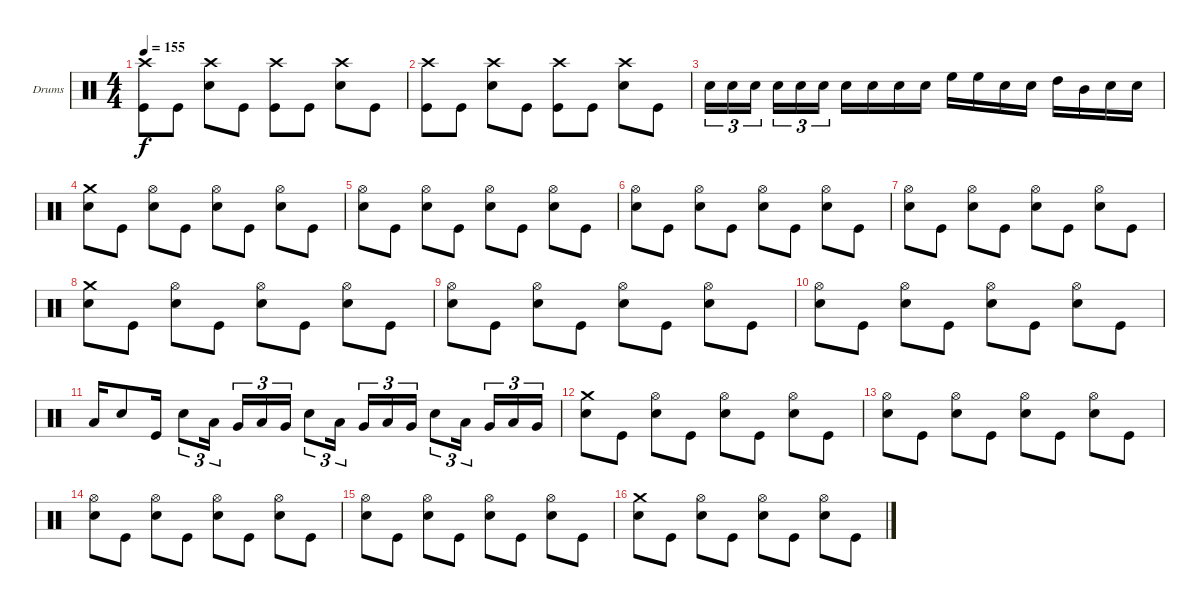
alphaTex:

\defaultSystemsLayout 4
\bracketExtendMode groupsimilarinstruments
\firstSystemTrackNameOrientation horizontal
\otherSystemsTrackNameOrientation horizontal
\track ("Drumkit" "Drums") {instrument percussion}
\staff {score}
\articulation defaults
\ts (4 4)
\tempo 155
\clef neutral
\scale
0.333333
\ks c
("Crash high (hit)" "Kick (hit)").8{dy f} "Kick (hit)".8 ("Crash high (hit)" "Snare (hit) 2").8 "Kick (hit)".8 ("Crash high (hit)" "Kick (hit)").8 "Kick (hit)".8 ("Crash high (hit)" "Snare (hit) 2").8 "Kick (hit)".8 |
\scale
0.333333 ("Crash high (hit)" "Kick (hit)").8 "Kick (hit)".8 ("Crash high (hit)" "Snare (hit) 2").8 "Kick (hit)".8 ("Crash high (hit)" "Kick (hit)").8 "Kick (hit)".8 ("Crash high (hit)" "Snare (hit) 2").8 "Kick (hit)".8 |
\scale
0.333333 "Snare (hit) 2".16{tu (3 2)} "Snare (hit) 2".16{tu (3 2)} "Snare (hit) 2".16{tu (3 2)} "Snare (hit) 2".16{tu (3 2)} "Snare (hit) 2".16{tu (3 2)} "Snare (hit) 2".16{tu (3 2)} "Snare (hit) 2".16 "Snare (hit) 2".16 "Snare (hit) 2".16 "Snare (hit) 2".16 "High Floor Tom (hit)".16 "High Floor Tom (hit)".16 "Snare (hit) 2".16 "Snare (hit) 2".16 "High Tom (hit)".16 "Mid Tom (hit)".16 "Snare (hit) 2".16 "Snare (hit) 2".16 |
\scale
0.333333 ("Crash medium (hit)" "Snare (hit) 2").8 "Kick (hit)".8 ("Hi-Hat (open)" "Snare (hit) 2").8 "Kick (hit)".8 ("Hi-Hat (open)" "Snare (hit) 2").8 "Kick (hit)".8 ("Hi-Hat (open)" "Snare (hit) 2").8 "Kick (hit)".8 |
\scale
0.333333 ("Hi-Hat (open)" "Snare (hit) 2").8 "Kick (hit)".8 ("Hi-Hat (open)" "Snare (hit) 2").8 "Kick (hit)".8 ("Hi-Hat (open)" "Snare (hit) 2").8 "Kick (hit)".8 ("Hi-Hat (open)" "Snare (hit) 2").8 "Kick (hit)".8 |
\scale
0.333333 ("Hi-Hat (open)" "Snare (hit) 2").8 "Kick (hit)".8 ("Hi-Hat (open)" "Snare (hit) 2").8 "Kick (hit)".8 ("Hi-Hat (open)" "Snare (hit) 2").8 "Kick (hit)".8 ("Hi-Hat (open)" "Snare (hit) 2").8 "Kick (hit)".8 |
\scale
0.333333 ("Hi-Hat (open)" "Snare (hit) 2").8 "Kick (hit)".8 ("Hi-Hat (open)" "Snare (hit) 2").8 "Kick (hit)".8 ("Hi-Hat (open)" "Snare (hit) 2").8 "Kick (hit)".8 ("Hi-Hat (open)" "Snare (hit) 2").8 "Kick (hit)".8 |
\scale
0.333333 ("Crash medium (hit)" "Snare (hit) 2").8 "Kick (hit)".8 ("Hi-Hat (open)" "Snare (hit) 2").8 "Kick (hit)".8 ("Hi-Hat (open)" "Snare (hit) 2").8 "Kick (hit)".8 ("Hi-Hat (open)" "Snare (hit) 2").8 "Kick (hit)".8 |
\scale
0.333333 ("Hi-Hat (open)" "Snare (hit) 2").8 "Kick (hit)".8 ("Hi-Hat (open)" "Snare (hit) 2").8 "Kick (hit)".8 ("Hi-Hat (open)" "Snare (hit) 2").8 "Kick (hit)".8 ("Hi-Hat (open)" "Snare (hit) 2").8 "Kick (hit)".8 |
\scale
0.333333 ("Hi-Hat (open)" "Snare (hit) 2").8 "Kick (hit)".8 ("Hi-Hat (open)" "Snare (hit) 2").8 "Kick (hit)".8 ("Hi-Hat (open)" "Snare (hit) 2").8 "Kick (hit)".8 ("Hi-Hat (open)" "Snare (hit) 2").8 "Kick (hit)".8 |
\scale
0.333333 "Low Tom (hit)".16 "Snare (hit) 2".8 "Kick (hit)".16 "Snare (hit) 2".8{tu (3 2)} "Low Tom (hit)".16{tu (3 2)} "Very Low Tom (hit)".16{tu (3 2)} "Low Tom (hit)".16{tu (3 2)} "Very Low Tom (hit)".16{tu (3 2)} "Snare (hit) 2".8{tu (3 2)} "Low Tom (hit)".16{tu (3 2)} "Very Low Tom (hit)".16{tu (3 2)} "Low Tom (hit)".16{tu (3 2)} "Very Low Tom (hit)".16{tu (3 2)} "Snare (hit) 2".8{tu (3 2)} "Low Tom (hit)".16{tu (3 2)} "Very Low Tom (hit)".16{tu (3 2)} "Low Tom (hit)".16{tu (3 2)} "Very Low Tom (hit)".16{tu (3 2)} |
\scale
0.333333 ("Crash medium (hit)" "Snare (hit) 2").8 "Kick (hit)".8 ("Hi-Hat (open)" "Snare (hit) 2").8 "Kick (hit)".8 ("Hi-Hat (open)" "Snare (hit) 2").8 "Kick (hit)".8 ("Hi-Hat (open)" "Snare (hit) 2").8 "Kick (hit)".8 |
\scale
0.333333 ("Hi-Hat (open)" "Snare (hit) 2").8 "Kick (hit)".8 ("Hi-Hat (open)" "Snare (hit) 2").8 "Kick (hit)".8 ("Hi-Hat (open)" "Snare (hit) 2").8 "Kick (hit)".8 ("Hi-Hat (open)" "Snare (hit) 2").8 "Kick (hit)".8 |
\scale
0.333333 ("Hi-Hat (open)" "Snare (hit) 2").8 "Kick (hit)".8 ("Hi-Hat (open)" "Snare (hit) 2").8 "Kick (hit)".8 ("Hi-Hat (open)" "Snare (hit) 2").8 "Kick (hit)".8 ("Hi-Hat (open)" "Snare (hit) 2").8 "Kick (hit)".8 |
\scale
0.333333 ("Hi-Hat (open)" "Snare (hit) 2").8 "Kick (hit)".8 ("Hi-Hat (open)" "Snare (hit) 2").8 "Kick (hit)".8 ("Hi-Hat (open)" "Snare (hit) 2").8 "Kick (hit)".8 ("Hi-Hat (open)" "Snare (hit) 2").8 "Kick (hit)".8 |
\scale
0.333333 ("Crash medium (hit)" "Snare (hit) 2").8 "Kick (hit)".8 ("Hi-Hat (open)" "Snare (hit) 2").8 "Kick (hit)".8 ("Hi-Hat (open)" "Snare (hit) 2").8 "Kick (hit)".8 ("Hi-Hat (open)" "Snare (hit) 2").8 "Kick (hit)".8
